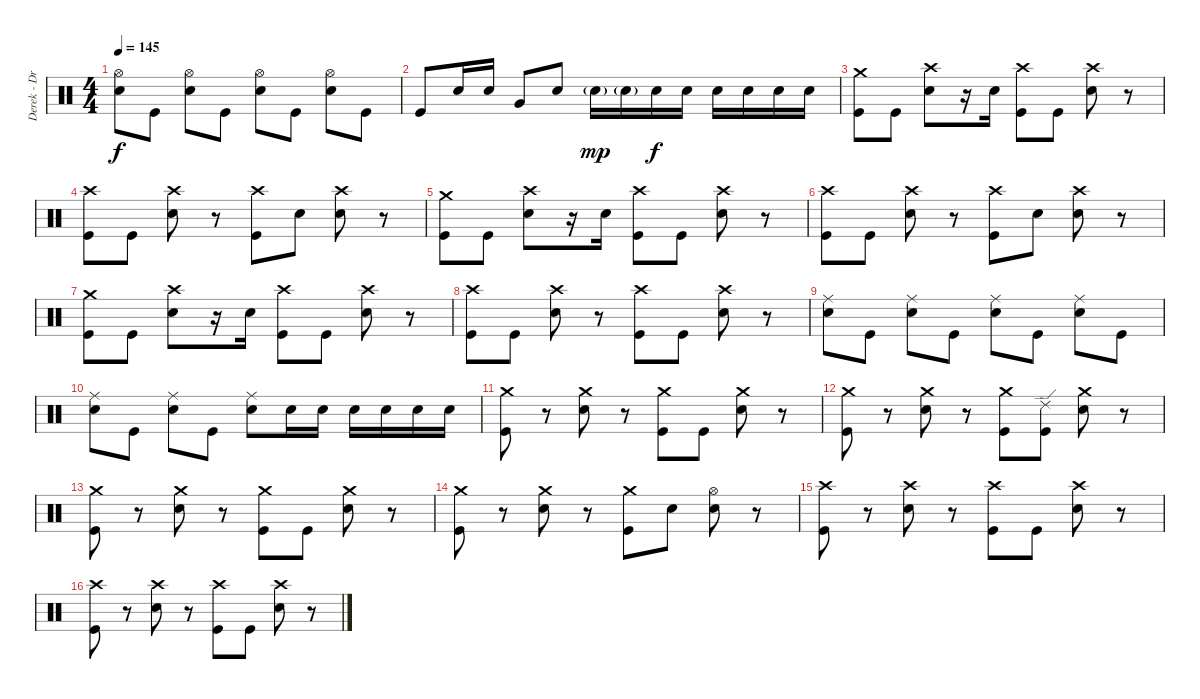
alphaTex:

\track ("Derek - Drums" "Derek - Dr") {instrument percussion}
\staff {score}
\articulation defaults
\ts (4 4)
\tempo 145
\clef neutral
\ks c
("Hi-Hat (open)" "Electric Snare (hit)").8{dy f} "Kick (hit)".8 ("Hi-Hat (open)" "Electric Snare (hit)").8 "Kick (hit)".8 ("Hi-Hat (open)" "Electric Snare (hit)").8 "Kick (hit)".8 ("Hi-Hat (open)" "Electric Snare (hit)").8 "Kick (hit)".8 |
"Kick (hit)".8 "Electric Snare (hit)".16 "Electric Snare (hit)".16 "Very Low Tom (hit)".8 "Electric Snare (hit)".8 "Electric Snare (hit)"{g}.16{dy mp} "Electric Snare (hit)"{g}.16 "Electric Snare (hit)".16{dy f} "Electric Snare (hit)".16 "Electric Snare (hit)".16 "Electric Snare (hit)".16 "Electric Snare (hit)".16 "Electric Snare (hit)".16 |
("Crash medium (hit)" "Kick (hit)").8 "Kick (hit)".8 ("Crash high (hit)" "Electric Snare (hit)").8 r.16 "Electric Snare (hit)".16 ("Crash high (hit)" "Kick (hit)").8 "Kick (hit)".8 ("Crash high (hit)" "Electric Snare (hit)").8 r.8 |
("Crash high (hit)" "Kick (hit)").8 "Kick (hit)".8 ("Crash high (hit)" "Electric Snare (hit)").8 r.8 ("Crash high (hit)" "Kick (hit)").8 "Electric Snare (hit)".8 ("Crash high (hit)" "Electric Snare (hit)").8 r.8 |
("Crash medium (hit)" "Kick (hit)").8 "Kick (hit)".8 ("Crash high (hit)" "Electric Snare (hit)").8 r.16 "Electric Snare (hit)".16 ("Crash high (hit)" "Kick (hit)").8 "Kick (hit)".8 ("Crash high (hit)" "Electric Snare (hit)").8 r.8 |
("Crash high (hit)" "Kick (hit)").8 "Kick (hit)".8 ("Crash high (hit)" "Electric Snare (hit)").8 r.8 ("Crash high (hit)" "Kick (hit)").8 "Electric Snare (hit)".8 ("Crash high (hit)" "Electric Snare (hit)").8 r.8 |
("Crash medium (hit)" "Kick (hit)").8 "Kick (hit)".8 ("Crash high (hit)" "Electric Snare (hit)").8 r.16 "Electric Snare (hit)".16 ("Crash high (hit)" "Kick (hit)").8 "Kick (hit)".8 ("Crash high (hit)" "Electric Snare (hit)").8 r.8 |
("Crash high (hit)" "Kick (hit)").8 "Kick (hit)".8 ("Crash high (hit)" "Electric Snare (hit)").8 r.8 ("Crash high (hit)" "Kick (hit)").8 "Kick (hit)".8 ("Crash high (hit)" "Electric Snare (hit)").8 r.8 |
("Ride (middle)" "Electric Snare (hit)").8 "Kick (hit)".8 ("Ride (middle)" "Electric Snare (hit)").8 "Kick (hit)".8 ("Ride (middle)" "Electric Snare (hit)").8 "Kick (hit)".8 ("Ride (middle)" "Electric Snare (hit)").8 "Kick (hit)".8 |
("Ride (middle)" "Electric Snare (hit)").8 "Kick (hit)".8 ("Ride (middle)" "Electric Snare (hit)").8 "Kick (hit)".8 ("Ride (middle)" "Electric Snare (hit)").8 "Electric Snare (hit)".16 "Electric Snare (hit)".16 "Electric Snare (hit)".16 "Electric Snare (hit)".16 "Electric Snare (hit)".16 "Electric Snare (hit)".16 |
("Crash medium (hit)" "Kick (hit)").8 r.8 ("Crash medium (hit)" "Electric Snare (hit)").8 r.8 ("Crash medium (hit)" "Kick (hit)").8 "Kick (hit)".8 ("Crash medium (hit)" "Electric Snare (hit)").8 r.8 |
("Crash medium (hit)" "Kick (hit)").8 r.8 ("Crash medium (hit)" "Electric Snare (hit)").8 r.8 ("Crash medium (hit)" "Kick (hit)").8 ("Ride (edge) 2" "Kick (hit)").8 ("Crash medium (hit)" "Electric Snare (hit)").8 r.8 |
("Crash medium (hit)" "Kick (hit)").8 r.8 ("Crash medium (hit)" "Electric Snare (hit)").8 r.8 ("Crash medium (hit)" "Kick (hit)").8 "Kick (hit)".8 ("Crash medium (hit)" "Electric Snare (hit)").8 r.8 |
("Crash medium (hit)" "Kick (hit)").8 r.8 ("Crash medium (hit)" "Electric Snare (hit)").8 r.8 ("Crash medium (hit)" "Kick (hit)").8 "Electric Snare (hit)".8 ("Hi-Hat (open)" "Electric Snare (hit)").8 r.8 |
("Crash high (hit)" "Kick (hit)").8 r.8 ("Crash high (hit)" "Electric Snare (hit)").8 r.8 ("Crash high (hit)" "Kick (hit)").8 "Kick (hit)".8 ("Crash high (hit)" "Electric Snare (hit)").8 r.8 |
("Crash high (hit)" "Kick (hit)").8 r.8 ("Crash high (hit)" "Electric Snare (hit)").8 r.8 ("Crash high (hit)" "Kick (hit)").8 "Kick (hit)".8 ("Crash high (hit)" "Electric Snare (hit)").8 r.8
